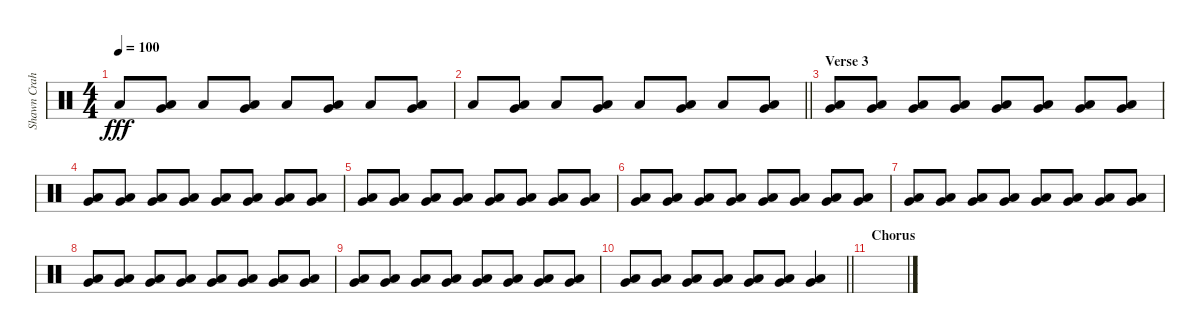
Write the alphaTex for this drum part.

\track ("Shawn Crahan" "Shawn Crah") {instrument percussion}
\staff {score}
\articulation defaults
\ts (4 4)
\tempo 100
\clef neutral
\ks c "Low Floor Tom (hit)".8{dy fff}
("Very Low Tom (hit)" "Low Floor Tom (hit)").8 "Low Floor Tom (hit)".8 ("Very Low Tom (hit)" "Low Floor Tom (hit)").8 "Low Floor Tom (hit)".8 ("Very Low Tom (hit)" "Low Floor Tom (hit)").8 "Low Floor Tom (hit)".8 ("Very Low Tom (hit)" "Low Floor Tom (hit)").8 |
\barLineRight lightlight "Low Floor Tom (hit)".8
("Very Low Tom (hit)" "Low Floor Tom (hit)").8 "Low Floor Tom (hit)".8 ("Very Low Tom (hit)" "Low Floor Tom (hit)").8 "Low Floor Tom (hit)".8 ("Very Low Tom (hit)" "Low Floor Tom (hit)").8 "Low Floor Tom (hit)".8 ("Very Low Tom (hit)" "Low Floor Tom (hit)").8 |
\section ("" "Verse 3")
("Very Low Tom (hit)" "Low Floor Tom (hit)").8 ("Very Low Tom (hit)" "Low Floor Tom (hit)").8 ("Very Low Tom (hit)" "Low Floor Tom (hit)").8 ("Very Low Tom (hit)" "Low Floor Tom (hit)").8 ("Very Low Tom (hit)" "Low Floor Tom (hit)").8 ("Very Low Tom (hit)" "Low Floor Tom (hit)").8 ("Very Low Tom (hit)" "Low Floor Tom (hit)").8 ("Very Low Tom (hit)" "Low Floor Tom (hit)").8 |
("Very Low Tom (hit)" "Low Floor Tom (hit)").8 ("Very Low Tom (hit)" "Low Floor Tom (hit)").8 ("Very Low Tom (hit)" "Low Floor Tom (hit)").8 ("Very Low Tom (hit)" "Low Floor Tom (hit)").8 ("Very Low Tom (hit)" "Low Floor Tom (hit)").8 ("Very Low Tom (hit)" "Low Floor Tom (hit)").8 ("Very Low Tom (hit)" "Low Floor Tom (hit)").8 ("Very Low Tom (hit)" "Low Floor Tom (hit)").8 |
("Very Low Tom (hit)" "Low Floor Tom (hit)").8 ("Very Low Tom (hit)" "Low Floor Tom (hit)").8 ("Very Low Tom (hit)" "Low Floor Tom (hit)").8 ("Very Low Tom (hit)" "Low Floor Tom (hit)").8 ("Very Low Tom (hit)" "Low Floor Tom (hit)").8 ("Very Low Tom (hit)" "Low Floor Tom (hit)").8 ("Very Low Tom (hit)" "Low Floor Tom (hit)").8 ("Very Low Tom (hit)" "Low Floor Tom (hit)").8 |
("Very Low Tom (hit)" "Low Floor Tom (hit)").8 ("Very Low Tom (hit)" "Low Floor Tom (hit)").8 ("Very Low Tom (hit)" "Low Floor Tom (hit)").8 ("Very Low Tom (hit)" "Low Floor Tom (hit)").8 ("Very Low Tom (hit)" "Low Floor Tom (hit)").8 ("Very Low Tom (hit)" "Low Floor Tom (hit)").8 ("Very Low Tom (hit)" "Low Floor Tom (hit)").8 ("Very Low Tom (hit)" "Low Floor Tom (hit)").8 |
("Very Low Tom (hit)" "Low Floor Tom (hit)").8 ("Very Low Tom (hit)" "Low Floor Tom (hit)").8 ("Very Low Tom (hit)" "Low Floor Tom (hit)").8 ("Very Low Tom (hit)" "Low Floor Tom (hit)").8 ("Very Low Tom (hit)" "Low Floor Tom (hit)").8 ("Very Low Tom (hit)" "Low Floor Tom (hit)").8 ("Very Low Tom (hit)" "Low Floor Tom (hit)").8 ("Very Low Tom (hit)" "Low Floor Tom (hit)").8 |
("Very Low Tom (hit)" "Low Floor Tom (hit)").8 ("Very Low Tom (hit)" "Low Floor Tom (hit)").8 ("Very Low Tom (hit)" "Low Floor Tom (hit)").8 ("Very Low Tom (hit)" "Low Floor Tom (hit)").8 ("Very Low Tom (hit)" "Low Floor Tom (hit)").8 ("Very Low Tom (hit)" "Low Floor Tom (hit)").8 ("Very Low Tom (hit)" "Low Floor Tom (hit)").8 ("Very Low Tom (hit)" "Low Floor Tom (hit)").8 |
("Very Low Tom (hit)" "Low Floor Tom (hit)").8 ("Very Low Tom (hit)" "Low Floor Tom (hit)").8 ("Very Low Tom (hit)" "Low Floor Tom (hit)").8 ("Very Low Tom (hit)" "Low Floor Tom (hit)").8 ("Very Low Tom (hit)" "Low Floor Tom (hit)").8 ("Very Low Tom (hit)" "Low Floor Tom (hit)").8 ("Very Low Tom (hit)" "Low Floor Tom (hit)").8 ("Very Low Tom (hit)" "Low Floor Tom (hit)").8 |
\barLineRight lightlight
("Very Low Tom (hit)" "Low Floor Tom (hit)").8 ("Very Low Tom (hit)" "Low Floor Tom (hit)").8 ("Very Low Tom (hit)" "Low Floor Tom (hit)").8 ("Very Low Tom (hit)" "Low Floor Tom (hit)").8 ("Very Low Tom (hit)" "Low Floor Tom (hit)").8 ("Very Low Tom (hit)" "Low Floor Tom (hit)").8 ("Very Low Tom (hit)" "Low Floor Tom (hit)").4 |
\section ("" "Chorus")
